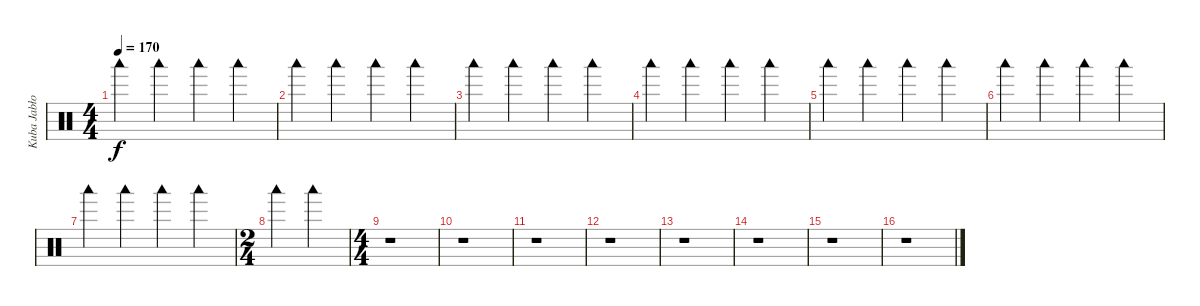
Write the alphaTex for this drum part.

\track ("Kuba Jabłoński" "Kuba Jabło") {instrument percussion}
\staff {score}
\articulation defaults
\ts (4 4)
\tempo 170
\clef neutral
\ks c "Woodblock low (hit)".4{dy f} "Woodblock low (hit)".4 "Woodblock low (hit)".4 "Woodblock low (hit)".4
|
"Woodblock low (hit)".4 "Woodblock low (hit)".4 "Woodblock low (hit)".4 "Woodblock low (hit)".4 |
"Woodblock low (hit)".4 "Woodblock low (hit)".4 "Woodblock low (hit)".4 "Woodblock low (hit)".4 |
"Woodblock low (hit)".4 "Woodblock low (hit)".4 "Woodblock low (hit)".4 "Woodblock low (hit)".4 |
"Woodblock low (hit)".4 "Woodblock low (hit)".4 "Woodblock low (hit)".4 "Woodblock low (hit)".4 |
"Woodblock low (hit)".4 "Woodblock low (hit)".4 "Woodblock low (hit)".4 "Woodblock low (hit)".4 |
"Woodblock low (hit)".4 "Woodblock low (hit)".4 "Woodblock low (hit)".4 "Woodblock low (hit)".4 |
\ts (2 4)
"Woodblock low (hit)".4 "Woodblock low (hit)".4 |
\ts (4 4)
r.1 |
r.1 |
r.1 |
r.1 |
r.1 |
r.1 |
r.1 |
r.1
